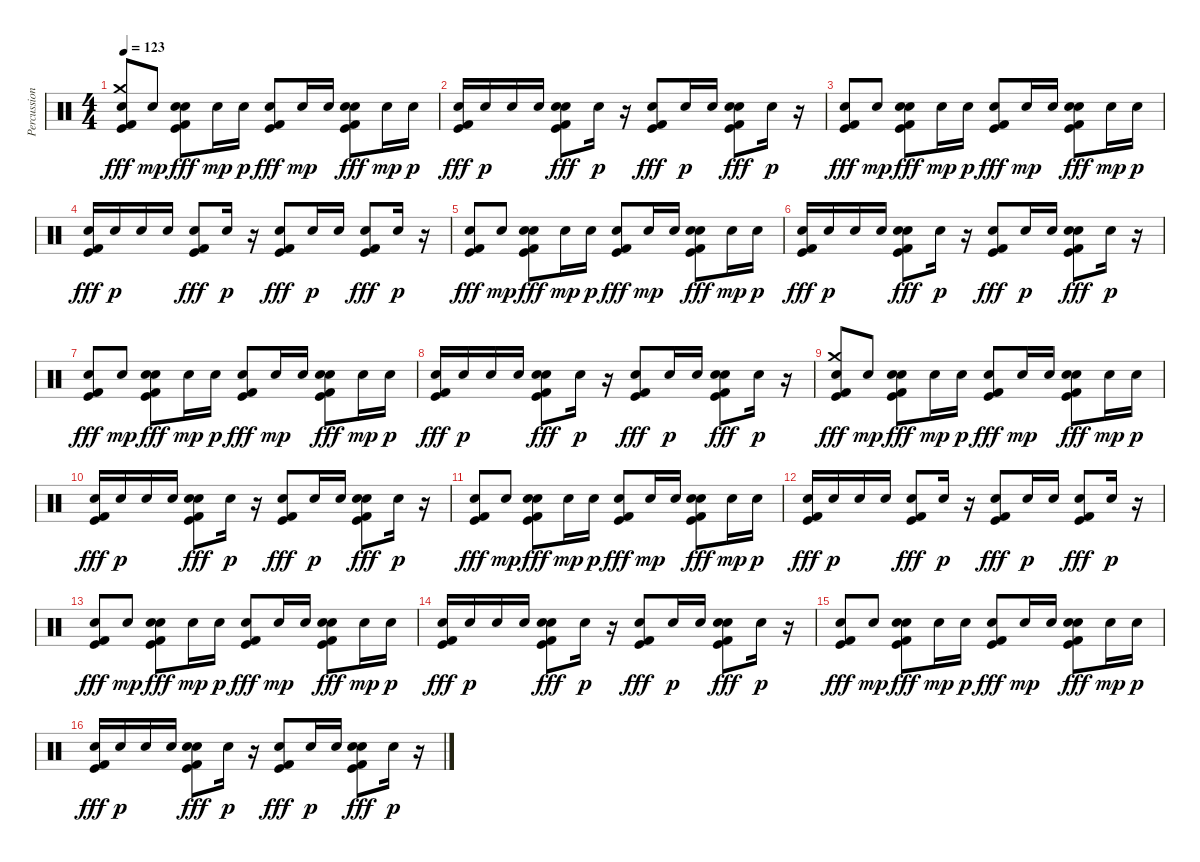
\track ("Percussion" "Percussion") {instrument percussion}
\staff {score}
\articulation defaults
\ts (4 4)
\tempo 123
\clef neutral
\ks c
("Hand Clap (hit)" "Crash medium (hit)" "Kick (hit)" "Kick (hit) 2").8{dy fff} "Hand Clap (hit)".8{dy mp} ("Kick (hit) 2" "Kick (hit)" "Snare (hit) 2" "Hand Clap (hit)").8{dy fff} "Hand Clap (hit)".16{dy mp} "Hand Clap (hit)".16{dy p} ("Kick (hit) 2" "Kick (hit)" "Hand Clap (hit)").8{dy fff} "Hand Clap (hit)".16{dy mp} "Hand Clap (hit)".16 ("Kick (hit) 2" "Kick (hit)" "Snare (hit) 2" "Hand Clap (hit)").8{dy fff} "Hand Clap (hit)".16{dy mp} "Hand Clap (hit)".16{dy p} |
("Kick (hit) 2" "Kick (hit)" "Hand Clap (hit)").16{dy fff} "Hand Clap (hit)".16{dy p} "Hand Clap (hit)".16 "Hand Clap (hit)".16 ("Kick (hit) 2" "Kick (hit)" "Hand Clap (hit)" "Snare (hit) 2").8{dy fff} "Hand Clap (hit)".16{dy p} r.16 ("Kick (hit) 2" "Kick (hit)" "Hand Clap (hit)").8{dy fff} "Hand Clap (hit)".16{dy p} "Hand Clap (hit)".16 ("Kick (hit) 2" "Kick (hit)" "Hand Clap (hit)" "Snare (hit) 2").8{dy fff} "Hand Clap (hit)".16{dy p} r.16 |
("Kick (hit) 2" "Kick (hit)" "Hand Clap (hit)").8{dy fff} "Hand Clap (hit)".8{dy mp} ("Kick (hit) 2" "Kick (hit)" "Snare (hit) 2" "Hand Clap (hit)").8{dy fff} "Hand Clap (hit)".16{dy mp} "Hand Clap (hit)".16{dy p} ("Kick (hit) 2" "Kick (hit)" "Hand Clap (hit)").8{dy fff} "Hand Clap (hit)".16{dy mp} "Hand Clap (hit)".16 ("Kick (hit) 2" "Kick (hit)" "Snare (hit) 2" "Hand Clap (hit)").8{dy fff} "Hand Clap (hit)".16{dy mp} "Hand Clap (hit)".16{dy p} |
("Kick (hit) 2" "Kick (hit)" "Hand Clap (hit)").16{dy fff} "Hand Clap (hit)".16{dy p} "Hand Clap (hit)".16 "Hand Clap (hit)".16 ("Kick (hit) 2" "Kick (hit)" "Hand Clap (hit)").8{dy fff} "Hand Clap (hit)".16{dy p} r.16 ("Kick (hit) 2" "Kick (hit)" "Hand Clap (hit)").8{dy fff} "Hand Clap (hit)".16{dy p} "Hand Clap (hit)".16 ("Kick (hit) 2" "Kick (hit)" "Hand Clap (hit)").8{dy fff} "Hand Clap (hit)".16{dy p} r.16 |
("Kick (hit) 2" "Kick (hit)" "Hand Clap (hit)").8{dy fff} "Hand Clap (hit)".8{dy mp} ("Kick (hit) 2" "Kick (hit)" "Snare (hit) 2" "Hand Clap (hit)").8{dy fff} "Hand Clap (hit)".16{dy mp} "Hand Clap (hit)".16{dy p} ("Kick (hit) 2" "Kick (hit)" "Hand Clap (hit)").8{dy fff} "Hand Clap (hit)".16{dy mp} "Hand Clap (hit)".16 ("Kick (hit) 2" "Kick (hit)" "Snare (hit) 2" "Hand Clap (hit)").8{dy fff} "Hand Clap (hit)".16{dy mp} "Hand Clap (hit)".16{dy p} |
("Kick (hit) 2" "Kick (hit)" "Hand Clap (hit)").16{dy fff} "Hand Clap (hit)".16{dy p} "Hand Clap (hit)".16 "Hand Clap (hit)".16 ("Kick (hit) 2" "Kick (hit)" "Hand Clap (hit)" "Snare (hit) 2").8{dy fff} "Hand Clap (hit)".16{dy p} r.16 ("Kick (hit) 2" "Kick (hit)" "Hand Clap (hit)").8{dy fff} "Hand Clap (hit)".16{dy p} "Hand Clap (hit)".16 ("Kick (hit) 2" "Kick (hit)" "Hand Clap (hit)" "Snare (hit) 2").8{dy fff} "Hand Clap (hit)".16{dy p} r.16 |
("Kick (hit) 2" "Kick (hit)" "Hand Clap (hit)").8{dy fff} "Hand Clap (hit)".8{dy mp} ("Kick (hit) 2" "Kick (hit)" "Snare (hit) 2" "Hand Clap (hit)").8{dy fff} "Hand Clap (hit)".16{dy mp} "Hand Clap (hit)".16{dy p} ("Kick (hit) 2" "Kick (hit)" "Hand Clap (hit)").8{dy fff} "Hand Clap (hit)".16{dy mp} "Hand Clap (hit)".16 ("Kick (hit) 2" "Kick (hit)" "Snare (hit) 2" "Hand Clap (hit)").8{dy fff} "Hand Clap (hit)".16{dy mp} "Hand Clap (hit)".16{dy p} |
("Kick (hit) 2" "Kick (hit)" "Hand Clap (hit)").16{dy fff} "Hand Clap (hit)".16{dy p} "Hand Clap (hit)".16 "Hand Clap (hit)".16 ("Kick (hit) 2" "Kick (hit)" "Hand Clap (hit)" "Snare (hit) 2").8{dy fff} "Hand Clap (hit)".16{dy p} r.16 ("Kick (hit) 2" "Kick (hit)" "Hand Clap (hit)").8{dy fff} "Hand Clap (hit)".16{dy p} "Hand Clap (hit)".16 ("Kick (hit) 2" "Kick (hit)" "Hand Clap (hit)" "Snare (hit) 2").8{dy fff} "Hand Clap (hit)".16{dy p} r.16 |
("Hand Clap (hit)" "Crash medium (hit)" "Kick (hit)" "Kick (hit) 2").8{dy fff} "Hand Clap (hit)".8{dy mp} ("Kick (hit) 2" "Kick (hit)" "Snare (hit) 2" "Hand Clap (hit)").8{dy fff} "Hand Clap (hit)".16{dy mp} "Hand Clap (hit)".16{dy p} ("Kick (hit) 2" "Kick (hit)" "Hand Clap (hit)").8{dy fff} "Hand Clap (hit)".16{dy mp} "Hand Clap (hit)".16 ("Kick (hit) 2" "Kick (hit)" "Snare (hit) 2" "Hand Clap (hit)").8{dy fff} "Hand Clap (hit)".16{dy mp} "Hand Clap (hit)".16{dy p} |
("Kick (hit) 2" "Kick (hit)" "Hand Clap (hit)").16{dy fff} "Hand Clap (hit)".16{dy p} "Hand Clap (hit)".16 "Hand Clap (hit)".16 ("Kick (hit) 2" "Kick (hit)" "Hand Clap (hit)" "Snare (hit) 2").8{dy fff} "Hand Clap (hit)".16{dy p} r.16 ("Kick (hit) 2" "Kick (hit)" "Hand Clap (hit)").8{dy fff} "Hand Clap (hit)".16{dy p} "Hand Clap (hit)".16 ("Kick (hit) 2" "Kick (hit)" "Hand Clap (hit)" "Snare (hit) 2").8{dy fff} "Hand Clap (hit)".16{dy p} r.16 |
("Kick (hit) 2" "Kick (hit)" "Hand Clap (hit)").8{dy fff} "Hand Clap (hit)".8{dy mp} ("Kick (hit) 2" "Kick (hit)" "Snare (hit) 2" "Hand Clap (hit)").8{dy fff} "Hand Clap (hit)".16{dy mp} "Hand Clap (hit)".16{dy p} ("Kick (hit) 2" "Kick (hit)" "Hand Clap (hit)").8{dy fff} "Hand Clap (hit)".16{dy mp} "Hand Clap (hit)".16 ("Kick (hit) 2" "Kick (hit)" "Snare (hit) 2" "Hand Clap (hit)").8{dy fff} "Hand Clap (hit)".16{dy mp} "Hand Clap (hit)".16{dy p} |
("Kick (hit) 2" "Kick (hit)" "Hand Clap (hit)").16{dy fff} "Hand Clap (hit)".16{dy p} "Hand Clap (hit)".16 "Hand Clap (hit)".16 ("Kick (hit) 2" "Kick (hit)" "Hand Clap (hit)").8{dy fff} "Hand Clap (hit)".16{dy p} r.16 ("Kick (hit) 2" "Kick (hit)" "Hand Clap (hit)").8{dy fff} "Hand Clap (hit)".16{dy p} "Hand Clap (hit)".16 ("Kick (hit) 2" "Kick (hit)" "Hand Clap (hit)").8{dy fff} "Hand Clap (hit)".16{dy p} r.16 |
("Kick (hit) 2" "Kick (hit)" "Hand Clap (hit)").8{dy fff} "Hand Clap (hit)".8{dy mp} ("Kick (hit) 2" "Kick (hit)" "Snare (hit) 2" "Hand Clap (hit)").8{dy fff} "Hand Clap (hit)".16{dy mp} "Hand Clap (hit)".16{dy p} ("Kick (hit) 2" "Kick (hit)" "Hand Clap (hit)").8{dy fff} "Hand Clap (hit)".16{dy mp} "Hand Clap (hit)".16 ("Kick (hit) 2" "Kick (hit)" "Snare (hit) 2" "Hand Clap (hit)").8{dy fff} "Hand Clap (hit)".16{dy mp} "Hand Clap (hit)".16{dy p} |
("Kick (hit) 2" "Kick (hit)" "Hand Clap (hit)").16{dy fff} "Hand Clap (hit)".16{dy p} "Hand Clap (hit)".16 "Hand Clap (hit)".16 ("Kick (hit) 2" "Kick (hit)" "Hand Clap (hit)" "Snare (hit) 2").8{dy fff} "Hand Clap (hit)".16{dy p} r.16 ("Kick (hit) 2" "Kick (hit)" "Hand Clap (hit)").8{dy fff} "Hand Clap (hit)".16{dy p} "Hand Clap (hit)".16 ("Kick (hit) 2" "Kick (hit)" "Hand Clap (hit)" "Snare (hit) 2").8{dy fff} "Hand Clap (hit)".16{dy p} r.16 |
("Kick (hit) 2" "Kick (hit)" "Hand Clap (hit)").8{dy fff} "Hand Clap (hit)".8{dy mp} ("Kick (hit) 2" "Kick (hit)" "Snare (hit) 2" "Hand Clap (hit)").8{dy fff} "Hand Clap (hit)".16{dy mp} "Hand Clap (hit)".16{dy p} ("Kick (hit) 2" "Kick (hit)" "Hand Clap (hit)").8{dy fff} "Hand Clap (hit)".16{dy mp} "Hand Clap (hit)".16 ("Kick (hit) 2" "Kick (hit)" "Snare (hit) 2" "Hand Clap (hit)").8{dy fff} "Hand Clap (hit)".16{dy mp} "Hand Clap (hit)".16{dy p} |
("Kick (hit) 2" "Kick (hit)" "Hand Clap (hit)").16{dy fff} "Hand Clap (hit)".16{dy p} "Hand Clap (hit)".16 "Hand Clap (hit)".16 ("Kick (hit) 2" "Kick (hit)" "Hand Clap (hit)" "Snare (hit) 2").8{dy fff} "Hand Clap (hit)".16{dy p} r.16 ("Kick (hit) 2" "Kick (hit)" "Hand Clap (hit)").8{dy fff} "Hand Clap (hit)".16{dy p} "Hand Clap (hit)".16 ("Kick (hit) 2" "Kick (hit)" "Hand Clap (hit)" "Snare (hit) 2").8{dy fff} "Hand Clap (hit)".16{dy p} r.16
